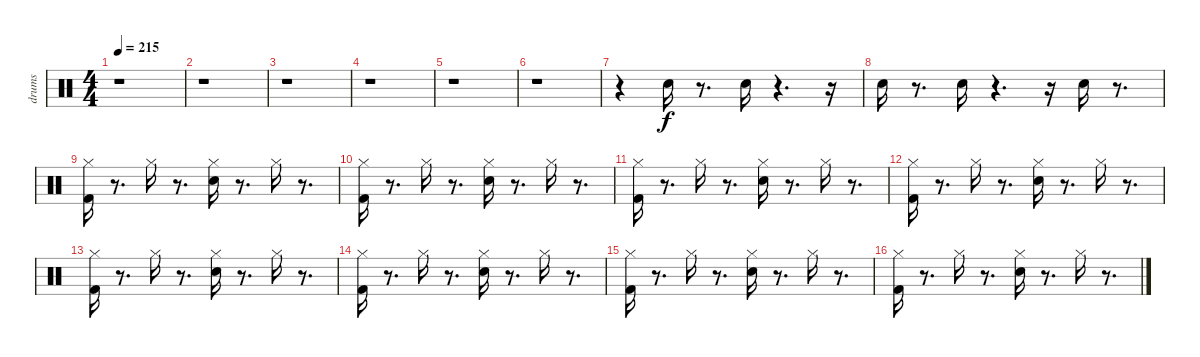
\track ("drums" "drums") {instrument percussion}
\staff {score}
\articulation defaults
\ts (4 4)
\tempo 215
\clef neutral
\ks c
r.1{dy f} |
r.1 |
r.1 |
r.1 |
r.1 |
r.1 |
r.4 "Electric Snare (hit)".16 r.8{d} "Electric Snare (hit)".16 r.4{d} r.16 |
"Electric Snare (hit)".16 r.8{d} "Electric Snare (hit)".16 r.4{d} r.16 "Electric Snare (hit)".16 r.8{d} |
("Hi-Hat (closed)" "Kick (hit) 2").16 r.8{d} "Hi-Hat (closed)".16 r.8{d} ("Hi-Hat (closed)" "Electric Snare (hit)").16 r.8{d} "Hi-Hat (closed)".16 r.8{d} |
("Hi-Hat (closed)" "Kick (hit) 2").16 r.8{d} "Hi-Hat (closed)".16 r.8{d} ("Hi-Hat (closed)" "Electric Snare (hit)").16 r.8{d} "Hi-Hat (closed)".16 r.8{d} |
("Hi-Hat (closed)" "Kick (hit) 2").16 r.8{d} "Hi-Hat (closed)".16 r.8{d} ("Hi-Hat (closed)" "Electric Snare (hit)").16 r.8{d} "Hi-Hat (closed)".16 r.8{d} |
("Hi-Hat (closed)" "Kick (hit) 2").16 r.8{d} "Hi-Hat (closed)".16 r.8{d} ("Hi-Hat (closed)" "Electric Snare (hit)").16 r.8{d} "Hi-Hat (closed)".16 r.8{d} |
("Hi-Hat (closed)" "Kick (hit) 2").16 r.8{d} "Hi-Hat (closed)".16 r.8{d} ("Hi-Hat (closed)" "Electric Snare (hit)").16 r.8{d} "Hi-Hat (closed)".16 r.8{d} |
("Hi-Hat (closed)" "Kick (hit) 2").16 r.8{d} "Hi-Hat (closed)".16 r.8{d} ("Hi-Hat (closed)" "Electric Snare (hit)").16 r.8{d} "Hi-Hat (closed)".16 r.8{d} |
("Hi-Hat (closed)" "Kick (hit) 2").16 r.8{d} "Hi-Hat (closed)".16 r.8{d} ("Hi-Hat (closed)" "Electric Snare (hit)").16 r.8{d} "Hi-Hat (closed)".16 r.8{d} |
("Hi-Hat (closed)" "Kick (hit) 2").16 r.8{d} "Hi-Hat (closed)".16 r.8{d} ("Hi-Hat (closed)" "Electric Snare (hit)").16 r.8{d} "Hi-Hat (closed)".16 r.8{d}
